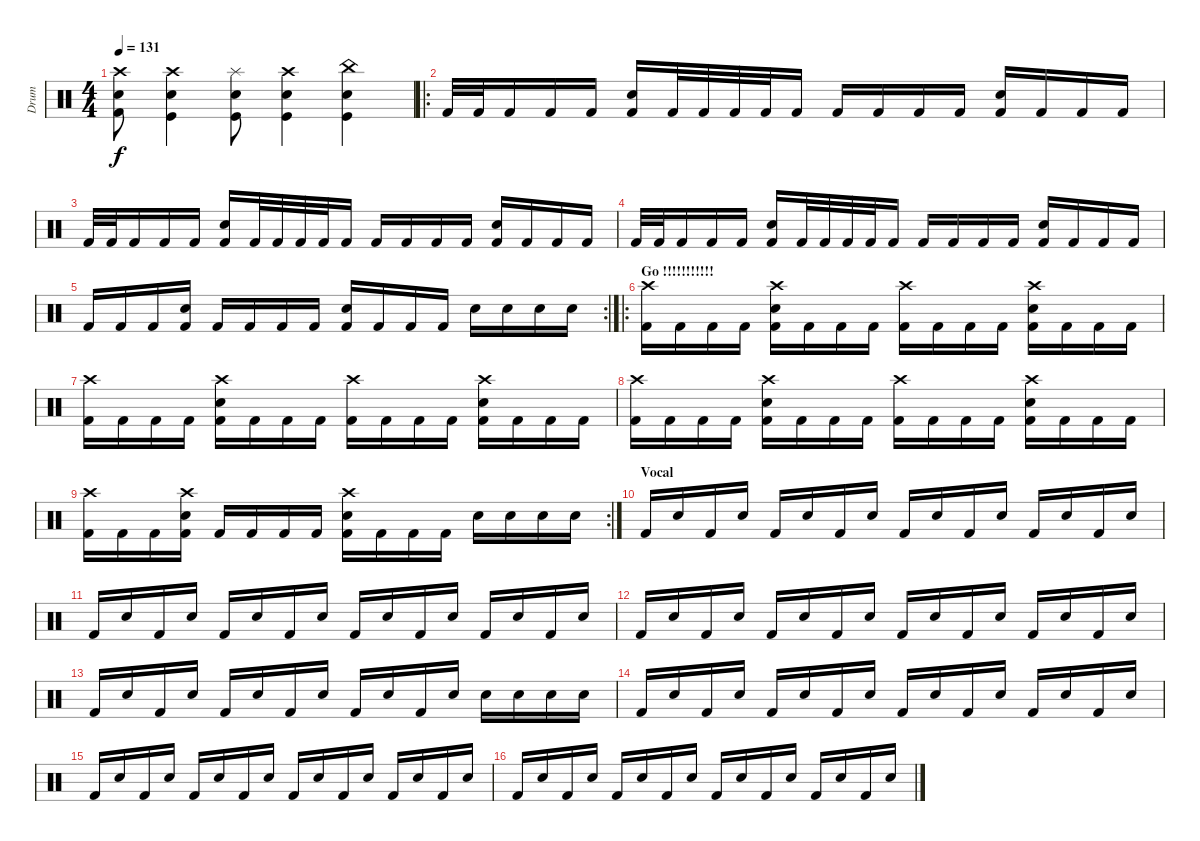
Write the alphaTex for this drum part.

\track ("Drum" "Drum") {instrument percussion}
\staff {score}
\articulation defaults
\ts (4 4)
\tempo 131
\clef neutral
\ks c
("Crash high (hit)" "Electric Snare (hit)" "Kick (hit) 2").8{dy f} ("Crash high (hit)" "Electric Snare (hit)" "Kick (hit)").4 ("Splash (hit)" "Electric Snare (hit)" "Kick (hit)").8 ("Crash high (hit)" "Electric Snare (hit)" "Kick (hit)").4 ("China (hit)" "Electric Snare (hit)" "Kick (hit)").4 |
\ro "Kick (hit) 2".32 "Kick (hit) 2".32 "Kick (hit) 2".16 "Kick (hit) 2".16 "Kick (hit) 2".16
("Electric Snare (hit)" "Kick (hit) 2").16 "Kick (hit) 2".32 "Kick (hit) 2".32 "Kick (hit) 2".32 "Kick (hit) 2".32 "Kick (hit) 2".16 "Kick (hit) 2".16 "Kick (hit) 2".16 "Kick (hit) 2".16 "Kick (hit) 2".16 ("Electric Snare (hit)" "Kick (hit) 2").16 "Kick (hit) 2".16 "Kick (hit) 2".16 "Kick (hit) 2".16 |
"Kick (hit) 2".32 "Kick (hit) 2".32 "Kick (hit) 2".16 "Kick (hit) 2".16 "Kick (hit) 2".16 ("Electric Snare (hit)" "Kick (hit) 2").16 "Kick (hit) 2".32 "Kick (hit) 2".32 "Kick (hit) 2".32 "Kick (hit) 2".32 "Kick (hit) 2".16 "Kick (hit) 2".16 "Kick (hit) 2".16 "Kick (hit) 2".16 "Kick (hit) 2".16 ("Electric Snare (hit)" "Kick (hit) 2").16 "Kick (hit) 2".16 "Kick (hit) 2".16 "Kick (hit) 2".16 |
"Kick (hit) 2".32 "Kick (hit) 2".32 "Kick (hit) 2".16 "Kick (hit) 2".16 "Kick (hit) 2".16 ("Electric Snare (hit)" "Kick (hit) 2").16 "Kick (hit) 2".32 "Kick (hit) 2".32 "Kick (hit) 2".32 "Kick (hit) 2".32 "Kick (hit) 2".16 "Kick (hit) 2".16 "Kick (hit) 2".16 "Kick (hit) 2".16 "Kick (hit) 2".16 ("Electric Snare (hit)" "Kick (hit) 2").16 "Kick (hit) 2".16 "Kick (hit) 2".16 "Kick (hit) 2".16 |
\rc 2 "Kick (hit) 2".16 "Kick (hit) 2".16 "Kick (hit) 2".16
("Electric Snare (hit)" "Kick (hit) 2").16 "Kick (hit) 2".16 "Kick (hit) 2".16 "Kick (hit) 2".16 "Kick (hit) 2".16 ("Electric Snare (hit)" "Kick (hit) 2").16 "Kick (hit) 2".16 "Kick (hit) 2".16 "Kick (hit) 2".16 "Electric Snare (hit)".16 "Electric Snare (hit)".16 "Electric Snare (hit)".16 "Electric Snare (hit)".16 |
\ro
\section ("" "Go !!!!!!!!!!!")
("Crash high (hit)" "Kick (hit) 2").16 "Kick (hit) 2".16 "Kick (hit) 2".16 "Kick (hit) 2".16 ("Crash high (hit)" "Electric Snare (hit)" "Kick (hit) 2").16 "Kick (hit) 2".16 "Kick (hit) 2".16 "Kick (hit) 2".16 ("Crash high (hit)" "Kick (hit) 2").16 "Kick (hit) 2".16 "Kick (hit) 2".16 "Kick (hit) 2".16 ("Crash high (hit)" "Electric Snare (hit)" "Kick (hit) 2").16 "Kick (hit) 2".16 "Kick (hit) 2".16 "Kick (hit) 2".16 |
("Crash high (hit)" "Kick (hit) 2").16 "Kick (hit) 2".16 "Kick (hit) 2".16 "Kick (hit) 2".16 ("Crash high (hit)" "Electric Snare (hit)" "Kick (hit) 2").16 "Kick (hit) 2".16 "Kick (hit) 2".16 "Kick (hit) 2".16 ("Crash high (hit)" "Kick (hit) 2").16 "Kick (hit) 2".16 "Kick (hit) 2".16 "Kick (hit) 2".16 ("Crash high (hit)" "Electric Snare (hit)" "Kick (hit) 2").16 "Kick (hit) 2".16 "Kick (hit) 2".16 "Kick (hit) 2".16 |
("Crash high (hit)" "Kick (hit) 2").16 "Kick (hit) 2".16 "Kick (hit) 2".16 "Kick (hit) 2".16 ("Crash high (hit)" "Electric Snare (hit)" "Kick (hit) 2").16 "Kick (hit) 2".16 "Kick (hit) 2".16 "Kick (hit) 2".16 ("Crash high (hit)" "Kick (hit) 2").16 "Kick (hit) 2".16 "Kick (hit) 2".16 "Kick (hit) 2".16 ("Crash high (hit)" "Electric Snare (hit)" "Kick (hit) 2").16 "Kick (hit) 2".16 "Kick (hit) 2".16 "Kick (hit) 2".16 |
\rc 2
("Crash high (hit)" "Kick (hit) 2").16 "Kick (hit) 2".16 "Kick (hit) 2".16 ("Crash high (hit)" "Electric Snare (hit)" "Kick (hit) 2").16 "Kick (hit) 2".16 "Kick (hit) 2".16 "Kick (hit) 2".16 "Kick (hit) 2".16 ("Crash high (hit)" "Electric Snare (hit)" "Kick (hit) 2").16 "Kick (hit) 2".16 "Kick (hit) 2".16 "Kick (hit) 2".16 "Electric Snare (hit)".16 "Electric Snare (hit)".16 "Electric Snare (hit)".16 "Electric Snare (hit)".16 |
\section ("" "Vocal")
"Kick (hit) 2".16 "Electric Snare (hit)".16 "Kick (hit) 2".16 "Electric Snare (hit)".16 "Kick (hit) 2".16 "Electric Snare (hit)".16 "Kick (hit) 2".16 "Electric Snare (hit)".16 "Kick (hit) 2".16 "Electric Snare (hit)".16 "Kick (hit) 2".16 "Electric Snare (hit)".16 "Kick (hit) 2".16 "Electric Snare (hit)".16 "Kick (hit) 2".16 "Electric Snare (hit)".16 |
"Kick (hit) 2".16 "Electric Snare (hit)".16 "Kick (hit) 2".16 "Electric Snare (hit)".16 "Kick (hit) 2".16 "Electric Snare (hit)".16 "Kick (hit) 2".16 "Electric Snare (hit)".16 "Kick (hit) 2".16 "Electric Snare (hit)".16 "Kick (hit) 2".16 "Electric Snare (hit)".16 "Kick (hit) 2".16 "Electric Snare (hit)".16 "Kick (hit) 2".16 "Electric Snare (hit)".16 |
"Kick (hit) 2".16 "Electric Snare (hit)".16 "Kick (hit) 2".16 "Electric Snare (hit)".16 "Kick (hit) 2".16 "Electric Snare (hit)".16 "Kick (hit) 2".16 "Electric Snare (hit)".16 "Kick (hit) 2".16 "Electric Snare (hit)".16 "Kick (hit) 2".16 "Electric Snare (hit)".16 "Kick (hit) 2".16 "Electric Snare (hit)".16 "Kick (hit) 2".16 "Electric Snare (hit)".16 |
"Kick (hit) 2".16 "Electric Snare (hit)".16 "Kick (hit) 2".16 "Electric Snare (hit)".16 "Kick (hit) 2".16 "Electric Snare (hit)".16 "Kick (hit) 2".16 "Electric Snare (hit)".16 "Kick (hit) 2".16 "Electric Snare (hit)".16 "Kick (hit) 2".16 "Electric Snare (hit)".16 "Electric Snare (hit)".16 "Electric Snare (hit)".16 "Electric Snare (hit)".16 "Electric Snare (hit)".16 |
"Kick (hit) 2".16 "Electric Snare (hit)".16 "Kick (hit) 2".16 "Electric Snare (hit)".16 "Kick (hit) 2".16 "Electric Snare (hit)".16 "Kick (hit) 2".16 "Electric Snare (hit)".16 "Kick (hit) 2".16 "Electric Snare (hit)".16 "Kick (hit) 2".16 "Electric Snare (hit)".16 "Kick (hit) 2".16 "Electric Snare (hit)".16 "Kick (hit) 2".16 "Electric Snare (hit)".16 |
"Kick (hit) 2".16 "Electric Snare (hit)".16 "Kick (hit) 2".16 "Electric Snare (hit)".16 "Kick (hit) 2".16 "Electric Snare (hit)".16 "Kick (hit) 2".16 "Electric Snare (hit)".16 "Kick (hit) 2".16 "Electric Snare (hit)".16 "Kick (hit) 2".16 "Electric Snare (hit)".16 "Kick (hit) 2".16 "Electric Snare (hit)".16 "Kick (hit) 2".16 "Electric Snare (hit)".16 |
"Kick (hit) 2".16 "Electric Snare (hit)".16 "Kick (hit) 2".16 "Electric Snare (hit)".16 "Kick (hit) 2".16 "Electric Snare (hit)".16 "Kick (hit) 2".16 "Electric Snare (hit)".16 "Kick (hit) 2".16 "Electric Snare (hit)".16 "Kick (hit) 2".16 "Electric Snare (hit)".16 "Kick (hit) 2".16 "Electric Snare (hit)".16 "Kick (hit) 2".16 "Electric Snare (hit)".16
